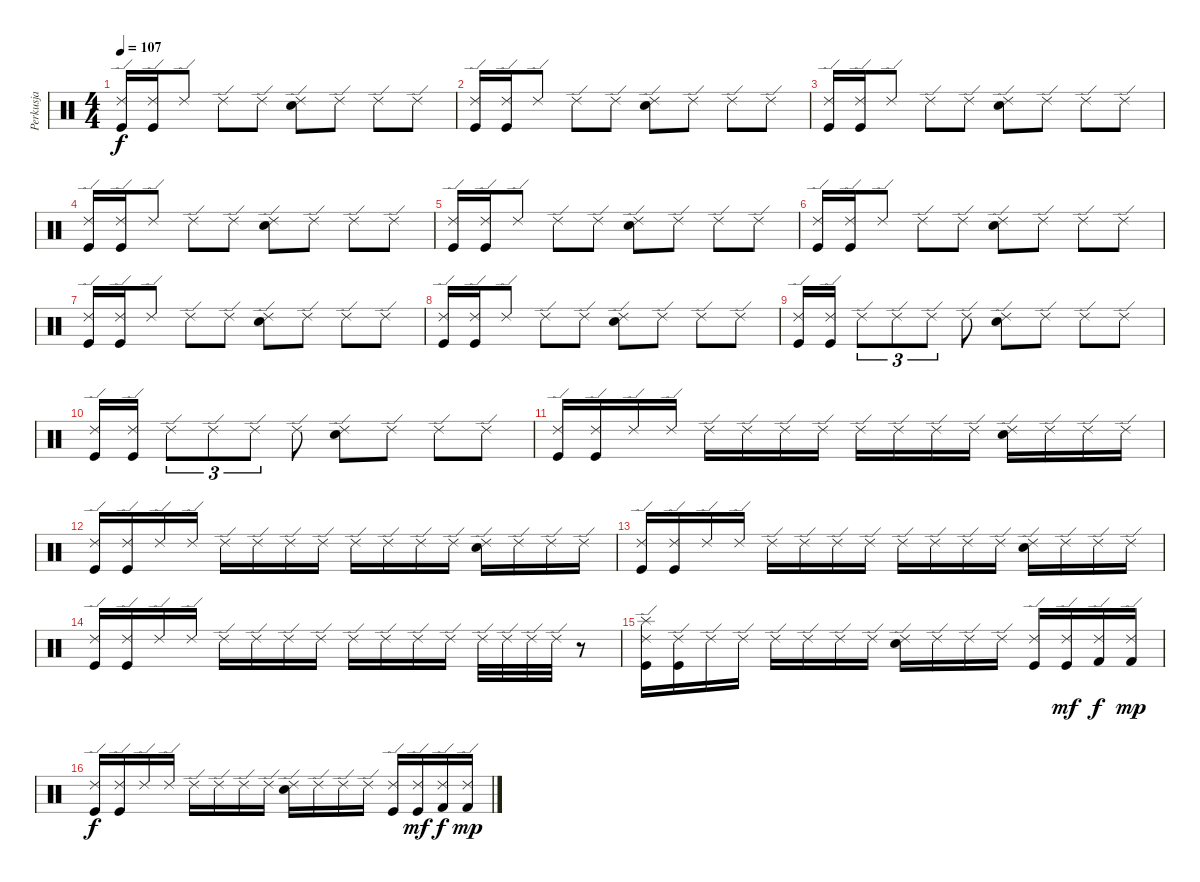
\track ("Perkusja" "Perkusja") {instrument percussion}
\staff {score}
\articulation defaults
\ts (4 4)
\tempo 107
\clef neutral
\ks c
("Ride (edge) 2" "Kick (hit)").16{dy f} ("Ride (edge) 2" "Kick (hit)").16 "Ride (edge) 2".8 "Ride (edge) 2".8 "Ride (edge) 2".8 ("Ride (edge) 2" "Electric Snare (hit)").8 "Ride (edge) 2".8 "Ride (edge) 2".8 "Ride (edge) 2".8 |
("Ride (edge) 2" "Kick (hit)").16 ("Ride (edge) 2" "Kick (hit)").16 "Ride (edge) 2".8 "Ride (edge) 2".8 "Ride (edge) 2".8 ("Ride (edge) 2" "Electric Snare (hit)").8 "Ride (edge) 2".8 "Ride (edge) 2".8 "Ride (edge) 2".8 |
("Ride (edge) 2" "Kick (hit)").16 ("Ride (edge) 2" "Kick (hit)").16 "Ride (edge) 2".8 "Ride (edge) 2".8 "Ride (edge) 2".8 ("Ride (edge) 2" "Electric Snare (hit)").8 "Ride (edge) 2".8 "Ride (edge) 2".8 "Ride (edge) 2".8 |
("Ride (edge) 2" "Kick (hit)").16 ("Ride (edge) 2" "Kick (hit)").16 "Ride (edge) 2".8 "Ride (edge) 2".8 "Ride (edge) 2".8 ("Ride (edge) 2" "Electric Snare (hit)").8 "Ride (edge) 2".8 "Ride (edge) 2".8 "Ride (edge) 2".8 |
("Ride (edge) 2" "Kick (hit)").16 ("Ride (edge) 2" "Kick (hit)").16 "Ride (edge) 2".8 "Ride (edge) 2".8 "Ride (edge) 2".8 ("Ride (edge) 2" "Electric Snare (hit)").8 "Ride (edge) 2".8 "Ride (edge) 2".8 "Ride (edge) 2".8 |
("Ride (edge) 2" "Kick (hit)").16 ("Ride (edge) 2" "Kick (hit)").16 "Ride (edge) 2".8 "Ride (edge) 2".8 "Ride (edge) 2".8 ("Ride (edge) 2" "Electric Snare (hit)").8 "Ride (edge) 2".8 "Ride (edge) 2".8 "Ride (edge) 2".8 |
("Ride (edge) 2" "Kick (hit)").16 ("Ride (edge) 2" "Kick (hit)").16 "Ride (edge) 2".8 "Ride (edge) 2".8 "Ride (edge) 2".8 ("Ride (edge) 2" "Electric Snare (hit)").8 "Ride (edge) 2".8 "Ride (edge) 2".8 "Ride (edge) 2".8 |
("Ride (edge) 2" "Kick (hit)").16 ("Ride (edge) 2" "Kick (hit)").16 "Ride (edge) 2".8 "Ride (edge) 2".8 "Ride (edge) 2".8 ("Ride (edge) 2" "Electric Snare (hit)").8 "Ride (edge) 2".8 "Ride (edge) 2".8 "Ride (edge) 2".8 |
("Ride (edge) 2" "Kick (hit)").16 ("Ride (edge) 2" "Kick (hit)").16 "Ride (edge) 2".8{tu (3 2)} "Ride (edge) 2".8{tu (3 2)} "Ride (edge) 2".8{tu (3 2)} "Ride (edge) 2".8 ("Ride (edge) 2" "Electric Snare (hit)").8 "Ride (edge) 2".8 "Ride (edge) 2".8 "Ride (edge) 2".8 |
("Ride (edge) 2" "Kick (hit)").16 ("Ride (edge) 2" "Kick (hit)").16 "Ride (edge) 2".8{tu (3 2)} "Ride (edge) 2".8{tu (3 2)} "Ride (edge) 2".8{tu (3 2)} "Ride (edge) 2".8 ("Ride (edge) 2" "Electric Snare (hit)").8 "Ride (edge) 2".8 "Ride (edge) 2".8 "Ride (edge) 2".8 |
("Ride (edge) 2" "Kick (hit)").16 ("Ride (edge) 2" "Kick (hit)").16 "Ride (edge) 2".16 "Ride (edge) 2".16 "Ride (edge) 2".16 "Ride (edge) 2".16 "Ride (edge) 2".16 "Ride (edge) 2".16 "Ride (edge) 2".16 "Ride (edge) 2".16 "Ride (edge) 2".16 "Ride (edge) 2".16 ("Ride (edge) 2" "Electric Snare (hit)").16 "Ride (edge) 2".16 "Ride (edge) 2".16 "Ride (edge) 2".16 |
("Ride (edge) 2" "Kick (hit)").16 ("Ride (edge) 2" "Kick (hit)").16 "Ride (edge) 2".16 "Ride (edge) 2".16 "Ride (edge) 2".16 "Ride (edge) 2".16 "Ride (edge) 2".16 "Ride (edge) 2".16 "Ride (edge) 2".16 "Ride (edge) 2".16 "Ride (edge) 2".16 "Ride (edge) 2".16 ("Ride (edge) 2" "Electric Snare (hit)").16 "Ride (edge) 2".16 "Ride (edge) 2".16 "Ride (edge) 2".16 |
("Ride (edge) 2" "Kick (hit)").16 ("Ride (edge) 2" "Kick (hit)").16 "Ride (edge) 2".16 "Ride (edge) 2".16 "Ride (edge) 2".16 "Ride (edge) 2".16 "Ride (edge) 2".16 "Ride (edge) 2".16 "Ride (edge) 2".16 "Ride (edge) 2".16 "Ride (edge) 2".16 "Ride (edge) 2".16 ("Ride (edge) 2" "Electric Snare (hit)").16 "Ride (edge) 2".16 "Ride (edge) 2".16 "Ride (edge) 2".16 |
("Ride (edge) 2" "Kick (hit)").16 ("Ride (edge) 2" "Kick (hit)").16 "Ride (edge) 2".16 "Ride (edge) 2".16 "Ride (edge) 2".16 "Ride (edge) 2".16 "Ride (edge) 2".16 "Ride (edge) 2".16 "Ride (edge) 2".16 "Ride (edge) 2".16 "Ride (edge) 2".16 "Ride (edge) 2".16 "Ride (edge) 2".32 "Ride (edge) 2".32 "Ride (edge) 2".32 "Ride (edge) 2".32 r.8 |
("Ride (edge) 2" "Splash (hit)" "Kick (hit)").16 ("Ride (edge) 2" "Kick (hit)").16 "Ride (edge) 2".16 "Ride (edge) 2".16 "Ride (edge) 2".16 "Ride (edge) 2".16 "Ride (edge) 2".16 "Ride (edge) 2".16 ("Ride (edge) 2" "Electric Snare (hit)").16 "Ride (edge) 2".16 "Ride (edge) 2".16 "Ride (edge) 2".16 ("Ride (edge) 2" "Kick (hit)").16 ("Ride (edge) 2" "Kick (hit)").16{dy mf} ("Ride (edge) 2" "Kick (hit) 2").16{dy f} ("Ride (edge) 2" "Kick (hit) 2").16{dy mp} |
("Ride (edge) 2" "Kick (hit)").16{dy f} ("Ride (edge) 2" "Kick (hit)").16 "Ride (edge) 2".16 "Ride (edge) 2".16 "Ride (edge) 2".16 "Ride (edge) 2".16 "Ride (edge) 2".16 "Ride (edge) 2".16 ("Ride (edge) 2" "Electric Snare (hit)").16 "Ride (edge) 2".16 "Ride (edge) 2".16 "Ride (edge) 2".16 ("Ride (edge) 2" "Kick (hit)").16 ("Ride (edge) 2" "Kick (hit)").16{dy mf} ("Ride (edge) 2" "Kick (hit) 2").16{dy f} ("Ride (edge) 2" "Kick (hit) 2").16{dy mp}
